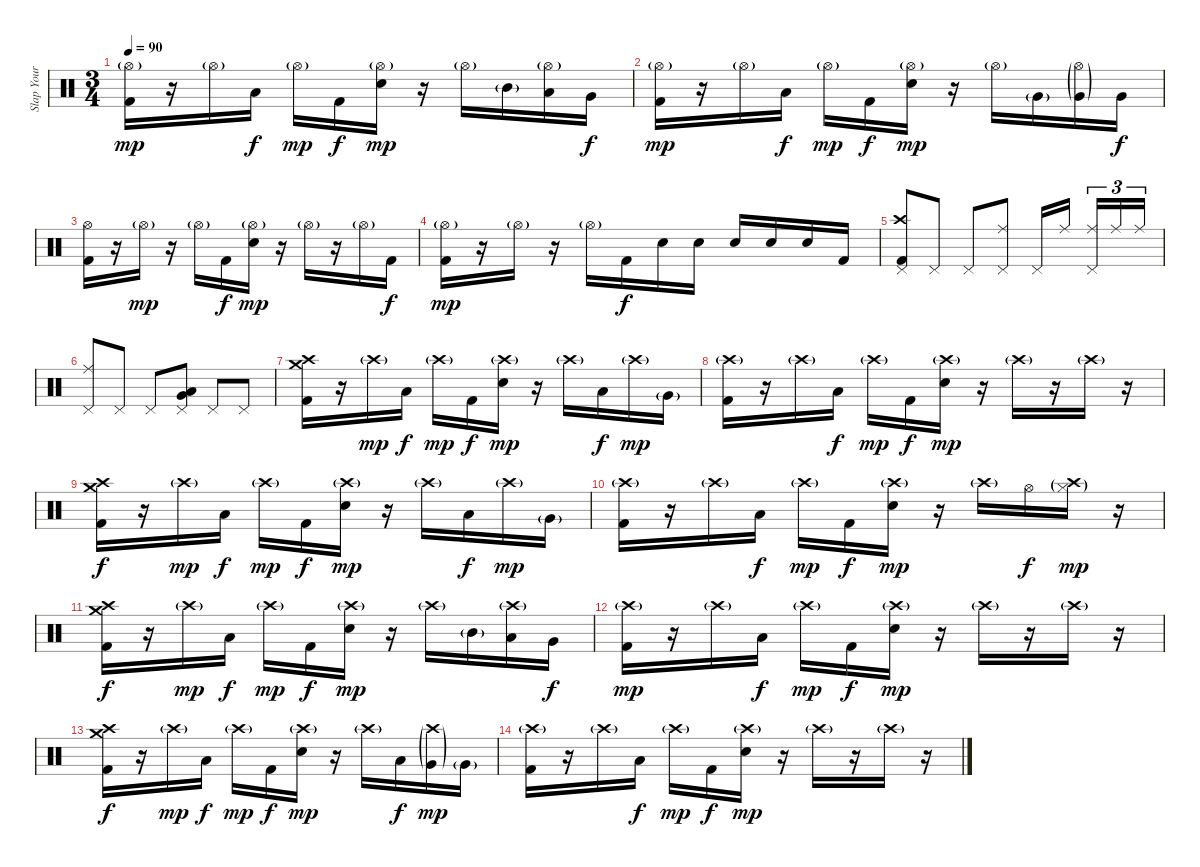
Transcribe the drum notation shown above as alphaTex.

\track ("Slap Your Sticks" "Slap Your ") {instrument percussion}
\staff {score}
\articulation defaults
\ts (3 4)
\tempo 90
\clef neutral
\ks c
("Hi-Hat (open)"{g} "Kick (hit) 2").16{dy mp} r.16 "Hi-Hat (open)"{g}.16 "Low Tom (hit)".16{dy f} "Hi-Hat (open)"{g}.16{dy mp} "Kick (hit) 2".16{dy f} ("Hi-Hat (open)"{g} "Electric Snare (hit)").16{dy mp} r.16 "Hi-Hat (open)"{g}.16 "Mid Tom (hit)"{g}.16 ("Hi-Hat (open)"{g} "Low Tom (hit)").16 "Very Low Tom (hit)".16{dy f} |
("Hi-Hat (open)"{g} "Kick (hit) 2").16{dy mp} r.16 "Hi-Hat (open)"{g}.16 "Low Tom (hit)".16{dy f} "Hi-Hat (open)"{g}.16{dy mp} "Kick (hit) 2".16{dy f} ("Hi-Hat (open)"{g} "Electric Snare (hit)").16{dy mp} r.16 "Hi-Hat (open)"{g}.16 "Very Low Tom (hit)"{g}.16 ("Hi-Hat (open)"{g} "Very Low Tom (hit)"{g}).16 "Very Low Tom (hit)".16{dy f} |
("Hi-Hat (open)" "Kick (hit) 2").16 r.16 "Hi-Hat (open)"{g}.16{dy mp} r.16 "Hi-Hat (open)"{g}.16 "Kick (hit) 2".16{dy f} ("Hi-Hat (open)"{g} "Electric Snare (hit)").16{dy mp} r.16 "Hi-Hat (open)"{g}.16 r.16 "Hi-Hat (open)"{g}.16 "Kick (hit) 2".16{dy f} |
("Hi-Hat (open)"{g} "Kick (hit) 2").16{dy mp} r.16 "Hi-Hat (open)"{g}.16 r.16 "Hi-Hat (open)"{g}.16 "Kick (hit) 2".16{dy f} "Electric Snare (hit)".16 "Electric Snare (hit)".16 "Electric Snare (hit)".16 "Electric Snare (hit)".16 "Electric Snare (hit)".16 "Kick (hit) 2".16 |
("Crash high (hit)" "Pedal Hi-Hat (hit)" "Kick (hit) 2").8 "Pedal Hi-Hat (hit)".8 "Pedal Hi-Hat (hit)".8 ("Ride (middle)" "Pedal Hi-Hat (hit)").8 "Pedal Hi-Hat (hit)".16 "Ride (middle)".16 ("Ride (middle)" "Pedal Hi-Hat (hit)").16{tu (3 2)} "Ride (middle)".16{tu (3 2)} "Ride (middle)".16{tu (3 2)} |
("Ride (middle)" "Pedal Hi-Hat (hit)").8 "Pedal Hi-Hat (hit)".8 "Pedal Hi-Hat (hit)".8 ("Pedal Hi-Hat (hit)" "Low Floor Tom (hit)" "Very Low Tom (hit)").8 "Pedal Hi-Hat (hit)".8 "Pedal Hi-Hat (hit)".8 |
("Crash high (hit)" "Crash medium (hit)" "Kick (hit) 2").16 r.16 "Crash high (hit)"{g}.16{dy mp} "Low Tom (hit)".16{dy f} "Crash high (hit)"{g}.16{dy mp} "Kick (hit) 2".16{dy f} ("Crash high (hit)"{g} "Electric Snare (hit)").16{dy mp} r.16 "Crash high (hit)"{g}.16 "Low Tom (hit)".16{dy f} "Crash high (hit)"{g}.16{dy mp} "Very Low Tom (hit)"{g}.16 |
("Crash high (hit)"{g} "Kick (hit) 2").16 r.16 "Crash high (hit)"{g}.16 "Low Tom (hit)".16{dy f} "Crash high (hit)"{g}.16{dy mp} "Kick (hit) 2".16{dy f} ("Crash high (hit)"{g} "Electric Snare (hit)").16{dy mp} r.16 "Crash high (hit)"{g}.16 r.16 "Crash high (hit)"{g}.16 r.16 |
("Crash high (hit)" "Crash medium (hit)" "Kick (hit) 2").16{dy f} r.16 "Crash high (hit)"{g}.16{dy mp} "Low Tom (hit)".16{dy f} "Crash high (hit)"{g}.16{dy mp} "Kick (hit) 2".16{dy f} ("Crash high (hit)"{g} "Electric Snare (hit)").16{dy mp} r.16 "Crash high (hit)"{g}.16 "Low Tom (hit)".16{dy f} "Crash high (hit)"{g}.16{dy mp} "Very Low Tom (hit)"{g}.16 |
("Crash high (hit)"{g} "Kick (hit) 2").16 r.16 "Crash high (hit)"{g}.16 "Low Tom (hit)".16{dy f} "Crash high (hit)"{g}.16{dy mp} "Kick (hit) 2".16{dy f} ("Crash high (hit)"{g} "Electric Snare (hit)").16{dy mp} r.16 "Crash high (hit)"{g}.16 "Hi-Hat (open)".16{dy f} ("Crash high (hit)"{g} "Hi-Hat (closed)"{g}).16{dy mp} r.16 |
("Crash high (hit)" "Crash medium (hit)" "Kick (hit) 2").16{dy f volume 0} r.16 "Crash high (hit)"{g}.16{dy mp} "Low Tom (hit)".16{dy f} "Crash high (hit)"{g}.16{dy mp} "Kick (hit) 2".16{dy f} ("Crash high (hit)"{g} "Electric Snare (hit)").16{dy mp} r.16 "Crash high (hit)"{g}.16 "Mid Tom (hit)"{g}.16 ("Crash high (hit)"{g} "Low Tom (hit)").16 "Very Low Tom (hit)".16{dy f} |
("Crash high (hit)"{g} "Kick (hit) 2").16{dy mp} r.16 "Crash high (hit)"{g}.16 "Low Tom (hit)".16{dy f} "Crash high (hit)"{g}.16{dy mp} "Kick (hit) 2".16{dy f} ("Crash high (hit)"{g} "Electric Snare (hit)").16{dy mp} r.16 "Crash high (hit)"{g}.16 r.16 "Crash high (hit)"{g}.16 r.16 |
("Crash high (hit)" "Crash medium (hit)" "Kick (hit) 2").16{dy f} r.16 "Crash high (hit)"{g}.16{dy mp} "Low Tom (hit)".16{dy f} "Crash high (hit)"{g}.16{dy mp} "Kick (hit) 2".16{dy f} ("Crash high (hit)"{g} "Electric Snare (hit)").16{dy mp} r.16 "Crash high (hit)"{g}.16 "Low Tom (hit)".16{dy f} ("Crash high (hit)"{g} "Very Low Tom (hit)"{g}).16{dy mp} "Very Low Tom (hit)"{g}.16 |
("Crash high (hit)"{g} "Kick (hit) 2").16 r.16 "Crash high (hit)"{g}.16 "Low Tom (hit)".16{dy f} "Crash high (hit)"{g}.16{dy mp} "Kick (hit) 2".16{dy f} ("Crash high (hit)"{g} "Electric Snare (hit)").16{dy mp} r.16 "Crash high (hit)"{g}.16 r.16 "Crash high (hit)"{g}.16 r.16
